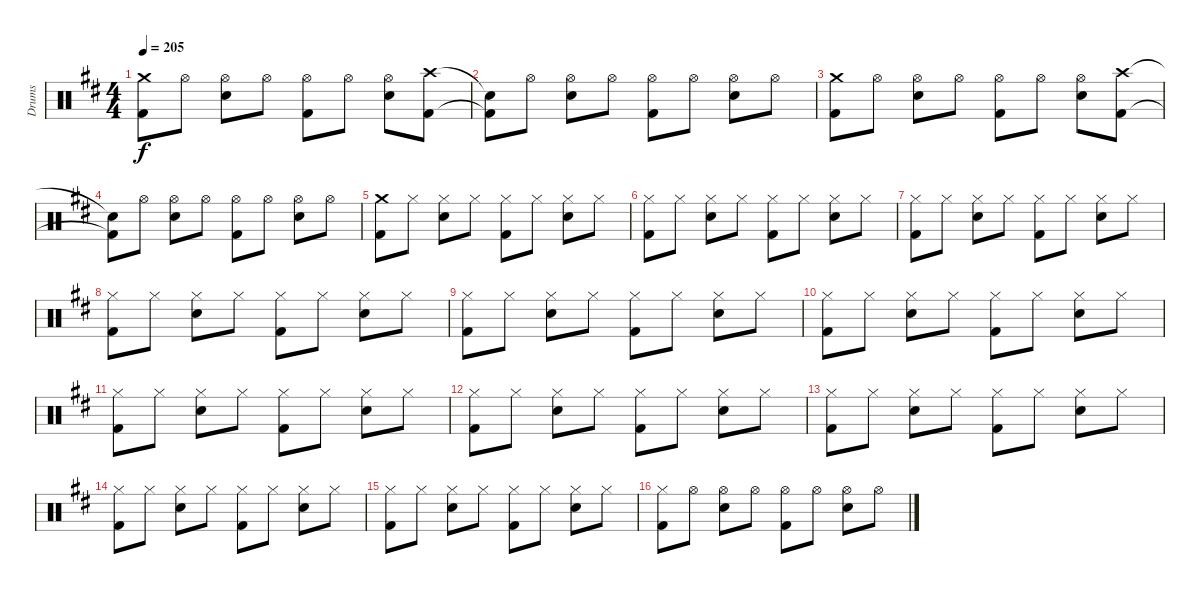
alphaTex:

\track ("Drums" "Drums") {instrument percussion}
\staff {score}
\articulation defaults
\ts (4 4)
\tempo 205
\clef neutral
\ks d
("Crash medium (hit)" "Kick (hit) 2").8{dy f} "Hi-Hat (open)".8 ("Hi-Hat (open)" "Snare (hit) 2").8 "Hi-Hat (open)".8 ("Hi-Hat (open)" "Kick (hit) 2").8 "Hi-Hat (open)".8 ("Hi-Hat (open)" "Snare (hit) 2").8 ("Crash high (hit)" "Kick (hit) 2").8 |
("Snare (hit)"{t} "Kick (hit) 2"{t}).8 "Hi-Hat (open)".8 ("Hi-Hat (open)" "Snare (hit) 2").8 "Hi-Hat (open)".8 ("Hi-Hat (open)" "Kick (hit) 2").8 "Hi-Hat (open)".8 ("Hi-Hat (open)" "Snare (hit) 2").8 "Hi-Hat (open)".8 |
("Crash medium (hit)" "Kick (hit) 2").8 "Hi-Hat (open)".8 ("Hi-Hat (open)" "Snare (hit) 2").8 "Hi-Hat (open)".8 ("Hi-Hat (open)" "Kick (hit) 2").8 "Hi-Hat (open)".8 ("Hi-Hat (open)" "Snare (hit) 2").8 ("Crash high (hit)" "Kick (hit) 2").8 |
("Snare (hit)"{t} "Kick (hit) 2"{t}).8 "Hi-Hat (open)".8 ("Hi-Hat (open)" "Snare (hit) 2").8 "Hi-Hat (open)".8 ("Hi-Hat (open)" "Kick (hit) 2").8 "Hi-Hat (open)".8 ("Hi-Hat (open)" "Snare (hit) 2").8 "Hi-Hat (open)".8 |
("Crash medium (hit)" "Kick (hit) 2").8 "Hi-Hat (closed)".8 ("Hi-Hat (closed)" "Snare (hit) 2").8 "Hi-Hat (closed)".8 ("Hi-Hat (closed)" "Kick (hit) 2").8 "Hi-Hat (closed)".8 ("Hi-Hat (closed)" "Snare (hit) 2").8 "Hi-Hat (closed)".8 |
("Hi-Hat (closed)" "Kick (hit) 2").8 "Hi-Hat (closed)".8 ("Hi-Hat (closed)" "Snare (hit) 2").8 "Hi-Hat (closed)".8 ("Hi-Hat (closed)" "Kick (hit) 2").8 "Hi-Hat (closed)".8 ("Hi-Hat (closed)" "Snare (hit) 2").8 "Hi-Hat (closed)".8 |
("Hi-Hat (closed)" "Kick (hit) 2").8 "Hi-Hat (closed)".8 ("Hi-Hat (closed)" "Snare (hit) 2").8 "Hi-Hat (closed)".8 ("Hi-Hat (closed)" "Kick (hit) 2").8 "Hi-Hat (closed)".8 ("Hi-Hat (closed)" "Snare (hit) 2").8 "Hi-Hat (closed)".8 |
("Hi-Hat (closed)" "Kick (hit) 2").8 "Hi-Hat (closed)".8 ("Hi-Hat (closed)" "Snare (hit) 2").8 "Hi-Hat (closed)".8 ("Hi-Hat (closed)" "Kick (hit) 2").8 "Hi-Hat (closed)".8 ("Hi-Hat (closed)" "Snare (hit) 2").8 "Hi-Hat (closed)".8 |
("Hi-Hat (closed)" "Kick (hit) 2").8 "Hi-Hat (closed)".8 ("Hi-Hat (closed)" "Snare (hit) 2").8 "Hi-Hat (closed)".8 ("Hi-Hat (closed)" "Kick (hit) 2").8 "Hi-Hat (closed)".8 ("Hi-Hat (closed)" "Snare (hit) 2").8 "Hi-Hat (closed)".8 |
("Hi-Hat (closed)" "Kick (hit) 2").8 "Hi-Hat (closed)".8 ("Hi-Hat (closed)" "Snare (hit) 2").8 "Hi-Hat (closed)".8 ("Hi-Hat (closed)" "Kick (hit) 2").8 "Hi-Hat (closed)".8 ("Hi-Hat (closed)" "Snare (hit) 2").8 "Hi-Hat (closed)".8 |
("Hi-Hat (closed)" "Kick (hit) 2").8 "Hi-Hat (closed)".8 ("Hi-Hat (closed)" "Snare (hit) 2").8 "Hi-Hat (closed)".8 ("Hi-Hat (closed)" "Kick (hit) 2").8 "Hi-Hat (closed)".8 ("Hi-Hat (closed)" "Snare (hit) 2").8 "Hi-Hat (closed)".8 |
("Hi-Hat (closed)" "Kick (hit) 2").8 "Hi-Hat (closed)".8 ("Hi-Hat (closed)" "Snare (hit) 2").8 "Hi-Hat (closed)".8 ("Hi-Hat (closed)" "Kick (hit) 2").8 "Hi-Hat (closed)".8 ("Hi-Hat (closed)" "Snare (hit) 2").8 "Hi-Hat (closed)".8 |
("Hi-Hat (closed)" "Kick (hit) 2").8 "Hi-Hat (closed)".8 ("Hi-Hat (closed)" "Snare (hit) 2").8 "Hi-Hat (closed)".8 ("Hi-Hat (closed)" "Kick (hit) 2").8 "Hi-Hat (closed)".8 ("Hi-Hat (closed)" "Snare (hit) 2").8 "Hi-Hat (closed)".8 |
("Hi-Hat (closed)" "Kick (hit) 2").8 "Hi-Hat (closed)".8 ("Hi-Hat (closed)" "Snare (hit) 2").8 "Hi-Hat (closed)".8 ("Hi-Hat (closed)" "Kick (hit) 2").8 "Hi-Hat (closed)".8 ("Hi-Hat (closed)" "Snare (hit) 2").8 "Hi-Hat (closed)".8 |
("Hi-Hat (closed)" "Kick (hit) 2").8 "Hi-Hat (closed)".8 ("Hi-Hat (closed)" "Snare (hit) 2").8 "Hi-Hat (closed)".8 ("Hi-Hat (closed)" "Kick (hit) 2").8 "Hi-Hat (closed)".8 ("Hi-Hat (closed)" "Snare (hit) 2").8 "Hi-Hat (closed)".8 |
("Hi-Hat (closed)" "Kick (hit) 2").8 "Hi-Hat (open)".8 ("Hi-Hat (open)" "Snare (hit) 2").8 "Hi-Hat (open)".8 ("Hi-Hat (open)" "Kick (hit) 2").8 "Hi-Hat (open)".8 ("Hi-Hat (open)" "Snare (hit) 2").8 "Hi-Hat (open)".8
